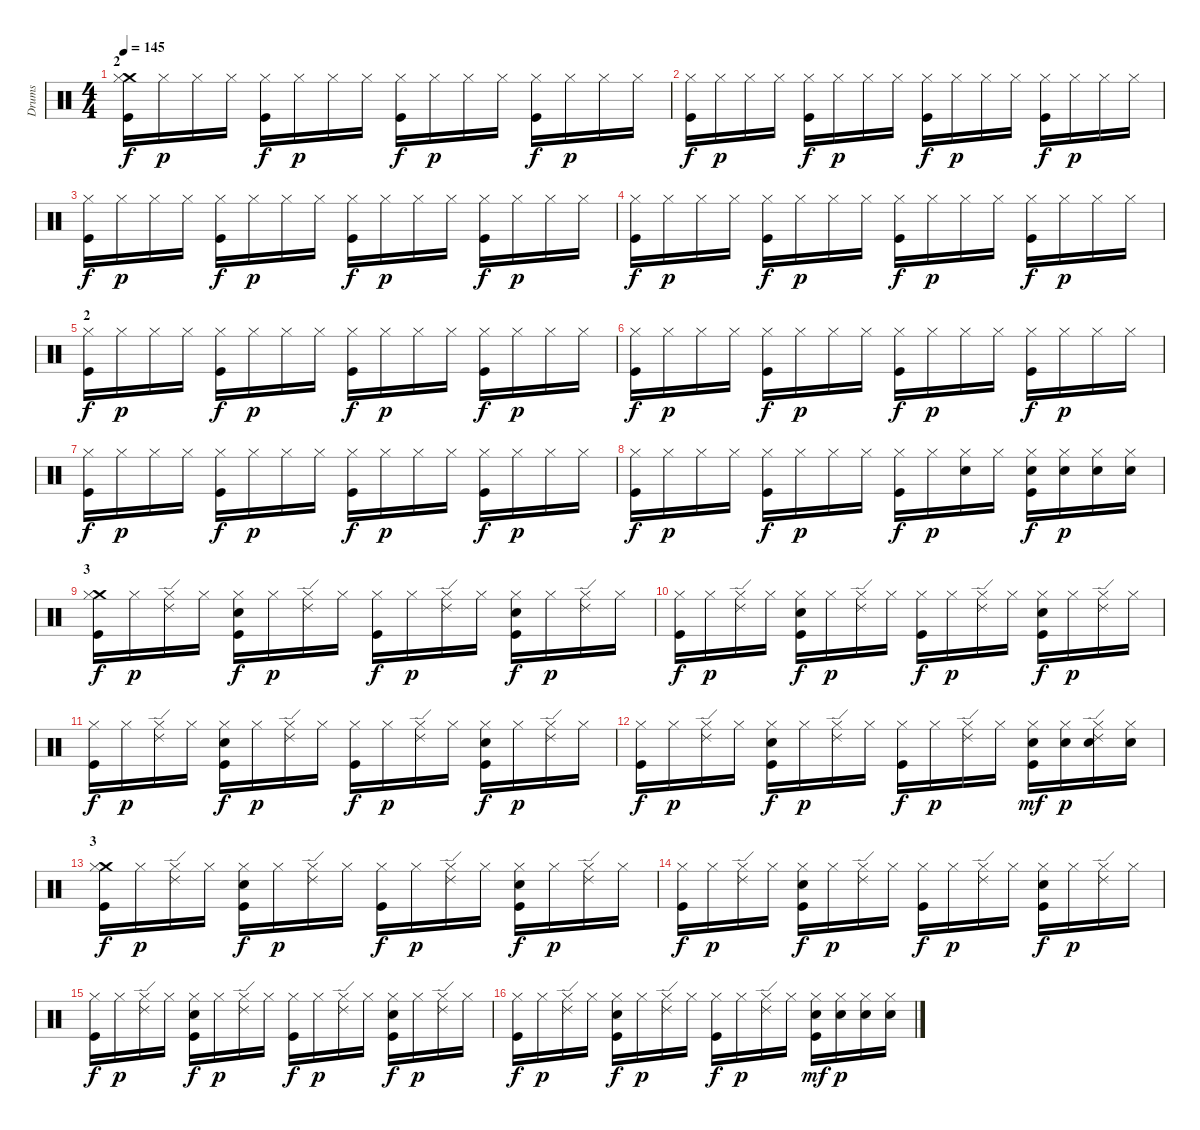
\track ("Drums" "Drums") {instrument percussion}
\staff {score}
\articulation defaults
\ts (4 4)
\section ("" "2")
\tempo 145
\clef neutral
\ks c
("Crash medium (hit)" "Kick (hit)" "Hi-Hat (closed)").16{dy f} "Hi-Hat (closed)".16{dy p} "Hi-Hat (closed)".16 "Hi-Hat (closed)".16 ("Kick (hit)" "Hi-Hat (closed)").16{dy f} "Hi-Hat (closed)".16{dy p} "Hi-Hat (closed)".16 "Hi-Hat (closed)".16 ("Kick (hit)" "Hi-Hat (closed)").16{dy f} "Hi-Hat (closed)".16{dy p} "Hi-Hat (closed)".16 "Hi-Hat (closed)".16 ("Kick (hit)" "Hi-Hat (closed)").16{dy f} "Hi-Hat (closed)".16{dy p} "Hi-Hat (closed)".16 "Hi-Hat (closed)".16 |
("Kick (hit)" "Hi-Hat (closed)").16{dy f} "Hi-Hat (closed)".16{dy p} "Hi-Hat (closed)".16 "Hi-Hat (closed)".16 ("Kick (hit)" "Hi-Hat (closed)").16{dy f} "Hi-Hat (closed)".16{dy p} "Hi-Hat (closed)".16 "Hi-Hat (closed)".16 ("Kick (hit)" "Hi-Hat (closed)").16{dy f} "Hi-Hat (closed)".16{dy p} "Hi-Hat (closed)".16 "Hi-Hat (closed)".16 ("Kick (hit)" "Hi-Hat (closed)").16{dy f} "Hi-Hat (closed)".16{dy p} "Hi-Hat (closed)".16 "Hi-Hat (closed)".16 |
("Kick (hit)" "Hi-Hat (closed)").16{dy f} "Hi-Hat (closed)".16{dy p} "Hi-Hat (closed)".16 "Hi-Hat (closed)".16 ("Kick (hit)" "Hi-Hat (closed)").16{dy f} "Hi-Hat (closed)".16{dy p} "Hi-Hat (closed)".16 "Hi-Hat (closed)".16 ("Kick (hit)" "Hi-Hat (closed)").16{dy f} "Hi-Hat (closed)".16{dy p} "Hi-Hat (closed)".16 "Hi-Hat (closed)".16 ("Kick (hit)" "Hi-Hat (closed)").16{dy f} "Hi-Hat (closed)".16{dy p} "Hi-Hat (closed)".16 "Hi-Hat (closed)".16 |
("Kick (hit)" "Hi-Hat (closed)").16{dy f} "Hi-Hat (closed)".16{dy p} "Hi-Hat (closed)".16 "Hi-Hat (closed)".16 ("Kick (hit)" "Hi-Hat (closed)").16{dy f} "Hi-Hat (closed)".16{dy p} "Hi-Hat (closed)".16 "Hi-Hat (closed)".16 ("Kick (hit)" "Hi-Hat (closed)").16{dy f} "Hi-Hat (closed)".16{dy p} "Hi-Hat (closed)".16 "Hi-Hat (closed)".16 ("Kick (hit)" "Hi-Hat (closed)").16{dy f} "Hi-Hat (closed)".16{dy p} "Hi-Hat (closed)".16 "Hi-Hat (closed)".16 |
\section ("" "2")
("Kick (hit)" "Hi-Hat (closed)").16{dy f} "Hi-Hat (closed)".16{dy p} "Hi-Hat (closed)".16 "Hi-Hat (closed)".16 ("Kick (hit)" "Hi-Hat (closed)").16{dy f} "Hi-Hat (closed)".16{dy p} "Hi-Hat (closed)".16 "Hi-Hat (closed)".16 ("Kick (hit)" "Hi-Hat (closed)").16{dy f} "Hi-Hat (closed)".16{dy p} "Hi-Hat (closed)".16 "Hi-Hat (closed)".16 ("Kick (hit)" "Hi-Hat (closed)").16{dy f} "Hi-Hat (closed)".16{dy p} "Hi-Hat (closed)".16 "Hi-Hat (closed)".16 |
("Kick (hit)" "Hi-Hat (closed)").16{dy f} "Hi-Hat (closed)".16{dy p} "Hi-Hat (closed)".16 "Hi-Hat (closed)".16 ("Kick (hit)" "Hi-Hat (closed)").16{dy f} "Hi-Hat (closed)".16{dy p} "Hi-Hat (closed)".16 "Hi-Hat (closed)".16 ("Kick (hit)" "Hi-Hat (closed)").16{dy f} "Hi-Hat (closed)".16{dy p} "Hi-Hat (closed)".16 "Hi-Hat (closed)".16 ("Kick (hit)" "Hi-Hat (closed)").16{dy f} "Hi-Hat (closed)".16{dy p} "Hi-Hat (closed)".16 "Hi-Hat (closed)".16 |
("Kick (hit)" "Hi-Hat (closed)").16{dy f} "Hi-Hat (closed)".16{dy p} "Hi-Hat (closed)".16 "Hi-Hat (closed)".16 ("Kick (hit)" "Hi-Hat (closed)").16{dy f} "Hi-Hat (closed)".16{dy p} "Hi-Hat (closed)".16 "Hi-Hat (closed)".16 ("Kick (hit)" "Hi-Hat (closed)").16{dy f} "Hi-Hat (closed)".16{dy p} "Hi-Hat (closed)".16 "Hi-Hat (closed)".16 ("Kick (hit)" "Hi-Hat (closed)").16{dy f} "Hi-Hat (closed)".16{dy p} "Hi-Hat (closed)".16 "Hi-Hat (closed)".16 |
("Kick (hit)" "Hi-Hat (closed)").16{dy f} "Hi-Hat (closed)".16{dy p} "Hi-Hat (closed)".16 "Hi-Hat (closed)".16 ("Kick (hit)" "Hi-Hat (closed)").16{dy f} "Hi-Hat (closed)".16{dy p} "Hi-Hat (closed)".16 "Hi-Hat (closed)".16 ("Kick (hit)" "Hi-Hat (closed)").16{dy f} "Hi-Hat (closed)".16{dy p} ("Hi-Hat (closed)" "Electric Snare (hit)").16 "Hi-Hat (closed)".16 ("Kick (hit)" "Hi-Hat (closed)" "Electric Snare (hit)").16{dy f} ("Hi-Hat (closed)" "Electric Snare (hit)").16{dy p} ("Hi-Hat (closed)" "Electric Snare (hit)").16 ("Hi-Hat (closed)" "Electric Snare (hit)").16 |
\section ("" "3")
("Crash medium (hit)" "Kick (hit)" "Hi-Hat (closed)").16{dy f} "Hi-Hat (closed)".16{dy p} ("Ride (edge) 2" "Hi-Hat (closed)").16 "Hi-Hat (closed)".16 ("Electric Snare (hit)" "Kick (hit)" "Hi-Hat (closed)").16{dy f} "Hi-Hat (closed)".16{dy p} ("Ride (edge) 2" "Hi-Hat (closed)").16 "Hi-Hat (closed)".16 ("Kick (hit)" "Hi-Hat (closed)").16{dy f} "Hi-Hat (closed)".16{dy p} ("Ride (edge) 2" "Hi-Hat (closed)").16 "Hi-Hat (closed)".16 ("Electric Snare (hit)" "Kick (hit)" "Hi-Hat (closed)").16{dy f} "Hi-Hat (closed)".16{dy p} ("Ride (edge) 2" "Hi-Hat (closed)").16 "Hi-Hat (closed)".16 |
("Kick (hit)" "Hi-Hat (closed)").16{dy f} "Hi-Hat (closed)".16{dy p} ("Ride (edge) 2" "Hi-Hat (closed)").16 "Hi-Hat (closed)".16 ("Electric Snare (hit)" "Kick (hit)" "Hi-Hat (closed)").16{dy f} "Hi-Hat (closed)".16{dy p} ("Ride (edge) 2" "Hi-Hat (closed)").16 "Hi-Hat (closed)".16 ("Kick (hit)" "Hi-Hat (closed)").16{dy f} "Hi-Hat (closed)".16{dy p} ("Ride (edge) 2" "Hi-Hat (closed)").16 "Hi-Hat (closed)".16 ("Electric Snare (hit)" "Kick (hit)" "Hi-Hat (closed)").16{dy f} "Hi-Hat (closed)".16{dy p} ("Ride (edge) 2" "Hi-Hat (closed)").16 "Hi-Hat (closed)".16 |
("Kick (hit)" "Hi-Hat (closed)").16{dy f} "Hi-Hat (closed)".16{dy p} ("Ride (edge) 2" "Hi-Hat (closed)").16 "Hi-Hat (closed)".16 ("Electric Snare (hit)" "Kick (hit)" "Hi-Hat (closed)").16{dy f} "Hi-Hat (closed)".16{dy p} ("Ride (edge) 2" "Hi-Hat (closed)").16 "Hi-Hat (closed)".16 ("Kick (hit)" "Hi-Hat (closed)").16{dy f} "Hi-Hat (closed)".16{dy p} ("Ride (edge) 2" "Hi-Hat (closed)").16 "Hi-Hat (closed)".16 ("Electric Snare (hit)" "Kick (hit)" "Hi-Hat (closed)").16{dy f} "Hi-Hat (closed)".16{dy p} ("Ride (edge) 2" "Hi-Hat (closed)").16 "Hi-Hat (closed)".16 |
("Kick (hit)" "Hi-Hat (closed)").16{dy f} "Hi-Hat (closed)".16{dy p} ("Ride (edge) 2" "Hi-Hat (closed)").16 "Hi-Hat (closed)".16 ("Electric Snare (hit)" "Kick (hit)" "Hi-Hat (closed)").16{dy f} "Hi-Hat (closed)".16{dy p} ("Ride (edge) 2" "Hi-Hat (closed)").16 "Hi-Hat (closed)".16 ("Kick (hit)" "Hi-Hat (closed)").16{dy f} "Hi-Hat (closed)".16{dy p} ("Ride (edge) 2" "Hi-Hat (closed)").16 "Hi-Hat (closed)".16 ("Electric Snare (hit)" "Kick (hit)" "Hi-Hat (closed)").16{dy mf} ("Electric Snare (hit)" "Hi-Hat (closed)").16{dy p} ("Electric Snare (hit)" "Ride (edge) 2" "Hi-Hat (closed)").16 ("Electric Snare (hit)" "Hi-Hat (closed)").16 |
\section ("" "3")
("Crash medium (hit)" "Kick (hit)" "Hi-Hat (closed)").16{dy f} "Hi-Hat (closed)".16{dy p} ("Ride (edge) 2" "Hi-Hat (closed)").16 "Hi-Hat (closed)".16 ("Electric Snare (hit)" "Kick (hit)" "Hi-Hat (closed)").16{dy f} "Hi-Hat (closed)".16{dy p} ("Ride (edge) 2" "Hi-Hat (closed)").16 "Hi-Hat (closed)".16 ("Kick (hit)" "Hi-Hat (closed)").16{dy f} "Hi-Hat (closed)".16{dy p} ("Ride (edge) 2" "Hi-Hat (closed)").16 "Hi-Hat (closed)".16 ("Electric Snare (hit)" "Kick (hit)" "Hi-Hat (closed)").16{dy f} "Hi-Hat (closed)".16{dy p} ("Ride (edge) 2" "Hi-Hat (closed)").16 "Hi-Hat (closed)".16 |
("Kick (hit)" "Hi-Hat (closed)").16{dy f} "Hi-Hat (closed)".16{dy p} ("Ride (edge) 2" "Hi-Hat (closed)").16 "Hi-Hat (closed)".16 ("Electric Snare (hit)" "Kick (hit)" "Hi-Hat (closed)").16{dy f} "Hi-Hat (closed)".16{dy p} ("Ride (edge) 2" "Hi-Hat (closed)").16 "Hi-Hat (closed)".16 ("Kick (hit)" "Hi-Hat (closed)").16{dy f} "Hi-Hat (closed)".16{dy p} ("Ride (edge) 2" "Hi-Hat (closed)").16 "Hi-Hat (closed)".16 ("Electric Snare (hit)" "Kick (hit)" "Hi-Hat (closed)").16{dy f} "Hi-Hat (closed)".16{dy p} ("Ride (edge) 2" "Hi-Hat (closed)").16 "Hi-Hat (closed)".16 |
("Kick (hit)" "Hi-Hat (closed)").16{dy f} "Hi-Hat (closed)".16{dy p} ("Ride (edge) 2" "Hi-Hat (closed)").16 "Hi-Hat (closed)".16 ("Electric Snare (hit)" "Kick (hit)" "Hi-Hat (closed)").16{dy f} "Hi-Hat (closed)".16{dy p} ("Ride (edge) 2" "Hi-Hat (closed)").16 "Hi-Hat (closed)".16 ("Kick (hit)" "Hi-Hat (closed)").16{dy f} "Hi-Hat (closed)".16{dy p} ("Ride (edge) 2" "Hi-Hat (closed)").16 "Hi-Hat (closed)".16 ("Electric Snare (hit)" "Kick (hit)" "Hi-Hat (closed)").16{dy f} "Hi-Hat (closed)".16{dy p} ("Ride (edge) 2" "Hi-Hat (closed)").16 "Hi-Hat (closed)".16 |
("Kick (hit)" "Hi-Hat (closed)").16{dy f} "Hi-Hat (closed)".16{dy p} ("Ride (edge) 2" "Hi-Hat (closed)").16 "Hi-Hat (closed)".16 ("Electric Snare (hit)" "Kick (hit)" "Hi-Hat (closed)").16{dy f} "Hi-Hat (closed)".16{dy p} ("Ride (edge) 2" "Hi-Hat (closed)").16 "Hi-Hat (closed)".16 ("Kick (hit)" "Hi-Hat (closed)").16{dy f} "Hi-Hat (closed)".16{dy p} ("Ride (edge) 2" "Hi-Hat (closed)").16 "Hi-Hat (closed)".16 ("Electric Snare (hit)" "Kick (hit)" "Hi-Hat (closed)").16{dy mf} ("Electric Snare (hit)" "Hi-Hat (closed)").16{dy p} ("Electric Snare (hit)" "Hi-Hat (closed)").16 ("Electric Snare (hit)" "Hi-Hat (closed)").16
